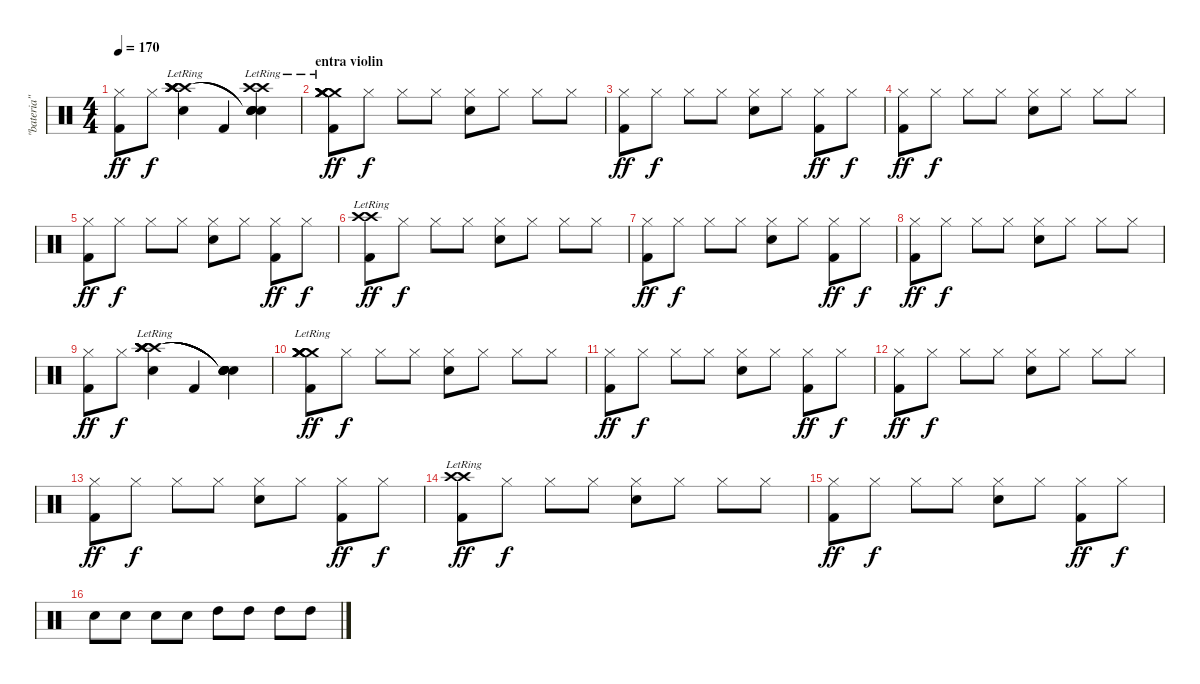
\track ("\"bateria\"" "\"bateria\"") {instrument percussion}
\staff {score}
\articulation defaults
\ts (4 4)
\tempo 170
\clef neutral
\ks c
("Kick (hit) 2" "Hi-Hat (closed)").8{dy ff} "Hi-Hat (closed)".8{dy f} ("Electric Snare (hit)" "Crash high (hit)"{lr} "Crash high (hit)"{lr} "Crash high (hit)"{lr} "Crash high (hit)"{lr} "Crash high (hit)"{lr}).4 "Kick (hit) 2".4 ("Electric Snare (hit)" "Crash high (hit)"{lr} "Crash high (hit)"{lr} "Snare (hit)"{t} "Snare (hit)"{t} "Snare (hit)"{t}).4 |
\section ("" "entra violin")
("Kick (hit) 2" "Crash medium (hit)"{lr} "Crash medium (hit)"{lr} "Crash medium (hit)"{lr} "Crash medium (hit)"{lr} "Crash medium (hit)"{lr}).8{dy ff} "Hi-Hat (closed)".8{dy f} "Hi-Hat (closed)".8 "Hi-Hat (closed)".8 ("Electric Snare (hit)" "Hi-Hat (closed)").8 "Hi-Hat (closed)".8 "Hi-Hat (closed)".8 "Hi-Hat (closed)".8 |
("Kick (hit) 2" "Hi-Hat (closed)").8{dy ff} "Hi-Hat (closed)".8{dy f} "Hi-Hat (closed)".8 "Hi-Hat (closed)".8 ("Electric Snare (hit)" "Hi-Hat (closed)").8 "Hi-Hat (closed)".8 ("Kick (hit) 2" "Hi-Hat (closed)").8{dy ff} "Hi-Hat (closed)".8{dy f} |
("Kick (hit) 2" "Hi-Hat (closed)").8{dy ff} "Hi-Hat (closed)".8{dy f} "Hi-Hat (closed)".8 "Hi-Hat (closed)".8 ("Electric Snare (hit)" "Hi-Hat (closed)").8 "Hi-Hat (closed)".8 "Hi-Hat (closed)".8 "Hi-Hat (closed)".8 |
("Kick (hit) 2" "Hi-Hat (closed)").8{dy ff} "Hi-Hat (closed)".8{dy f} "Hi-Hat (closed)".8 "Hi-Hat (closed)".8 ("Electric Snare (hit)" "Hi-Hat (closed)").8 "Hi-Hat (closed)".8 ("Kick (hit) 2" "Hi-Hat (closed)").8{dy ff} "Hi-Hat (closed)".8{dy f} |
("Kick (hit) 2" "Crash high (hit)" "Crash high (hit)"{lr}).8{dy ff} "Hi-Hat (closed)".8{dy f} "Hi-Hat (closed)".8 "Hi-Hat (closed)".8 ("Electric Snare (hit)" "Hi-Hat (closed)").8 "Hi-Hat (closed)".8 "Hi-Hat (closed)".8 "Hi-Hat (closed)".8 |
("Kick (hit) 2" "Hi-Hat (closed)").8{dy ff} "Hi-Hat (closed)".8{dy f} "Hi-Hat (closed)".8 "Hi-Hat (closed)".8 ("Electric Snare (hit)" "Hi-Hat (closed)").8 "Hi-Hat (closed)".8 ("Kick (hit) 2" "Hi-Hat (closed)").8{dy ff} "Hi-Hat (closed)".8{dy f} |
("Kick (hit) 2" "Hi-Hat (closed)").8{dy ff} "Hi-Hat (closed)".8{dy f} "Hi-Hat (closed)".8 "Hi-Hat (closed)".8 ("Electric Snare (hit)" "Hi-Hat (closed)").8 "Hi-Hat (closed)".8 "Hi-Hat (closed)".8 "Hi-Hat (closed)".8 |
("Kick (hit) 2" "Hi-Hat (closed)").8{dy ff} "Hi-Hat (closed)".8{dy f} ("Electric Snare (hit)" "Crash high (hit)"{lr} "Crash high (hit)"{lr} "Crash high (hit)"{lr} "Crash high (hit)"{lr} "Crash high (hit)"{lr}).4 "Kick (hit) 2".4 ("Electric Snare (hit)" "Snare (hit)"{t} "Snare (hit)"{t} "Snare (hit)"{t} "Snare (hit)"{t} "Snare (hit)"{t}).4 |
("Kick (hit) 2" "Crash medium (hit)"{lr} "Crash medium (hit)"{lr} "Crash medium (hit)"{lr} "Crash medium (hit)"{lr} "Crash medium (hit)"{lr}).8{dy ff} "Hi-Hat (closed)".8{dy f} "Hi-Hat (closed)".8 "Hi-Hat (closed)".8 ("Electric Snare (hit)" "Hi-Hat (closed)").8 "Hi-Hat (closed)".8 "Hi-Hat (closed)".8 "Hi-Hat (closed)".8 |
("Kick (hit) 2" "Hi-Hat (closed)").8{dy ff} "Hi-Hat (closed)".8{dy f} "Hi-Hat (closed)".8 "Hi-Hat (closed)".8 ("Electric Snare (hit)" "Hi-Hat (closed)").8 "Hi-Hat (closed)".8 ("Kick (hit) 2" "Hi-Hat (closed)").8{dy ff} "Hi-Hat (closed)".8{dy f} |
("Kick (hit) 2" "Hi-Hat (closed)").8{dy ff} "Hi-Hat (closed)".8{dy f} "Hi-Hat (closed)".8 "Hi-Hat (closed)".8 ("Electric Snare (hit)" "Hi-Hat (closed)").8 "Hi-Hat (closed)".8 "Hi-Hat (closed)".8 "Hi-Hat (closed)".8 |
("Kick (hit) 2" "Hi-Hat (closed)").8{dy ff} "Hi-Hat (closed)".8{dy f} "Hi-Hat (closed)".8 "Hi-Hat (closed)".8 ("Electric Snare (hit)" "Hi-Hat (closed)").8 "Hi-Hat (closed)".8 ("Kick (hit) 2" "Hi-Hat (closed)").8{dy ff} "Hi-Hat (closed)".8{dy f} |
("Kick (hit) 2" "Crash high (hit)"{lr} "Crash high (hit)"{lr}).8{dy ff} "Hi-Hat (closed)".8{dy f} "Hi-Hat (closed)".8 "Hi-Hat (closed)".8 ("Electric Snare (hit)" "Hi-Hat (closed)").8 "Hi-Hat (closed)".8 "Hi-Hat (closed)".8 "Hi-Hat (closed)".8 |
("Kick (hit) 2" "Hi-Hat (closed)").8{dy ff} "Hi-Hat (closed)".8{dy f} "Hi-Hat (closed)".8 "Hi-Hat (closed)".8 ("Electric Snare (hit)" "Hi-Hat (closed)").8 "Hi-Hat (closed)".8 ("Kick (hit) 2" "Hi-Hat (closed)").8{dy ff} "Hi-Hat (closed)".8{dy f} |
"Snare (hit) 2".8 "Snare (hit) 2".8 "Snare (hit) 2".8 "Snare (hit) 2".8 "High Tom (hit)".8 "High Tom (hit)".8 "High Tom (hit)".8 "High Tom (hit)".8
